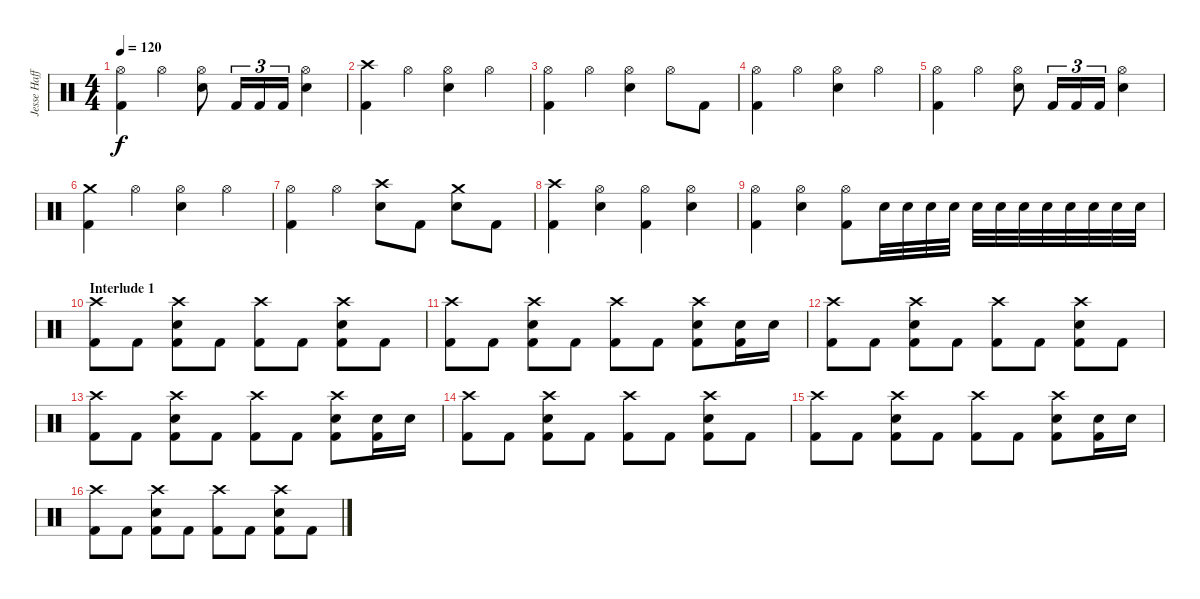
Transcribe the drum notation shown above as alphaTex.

\track ("Jesse Haff" "Jesse Haff") {instrument percussion}
\staff {score}
\articulation defaults
\ts (4 4)
\tempo 120
\clef neutral
\ks c
("Hi-Hat (open)" "Kick (hit) 2").4{dy f} "Hi-Hat (open)".4 ("Hi-Hat (open)" "Electric Snare (hit)").8 "Kick (hit) 2".16{tu (3 2)} "Kick (hit) 2".16{tu (3 2)} "Kick (hit) 2".16{tu (3 2)} ("Hi-Hat (open)" "Electric Snare (hit)").4 |
("Crash high (hit)" "Kick (hit) 2").4 "Hi-Hat (open)".4 ("Hi-Hat (open)" "Electric Snare (hit)").4 "Hi-Hat (open)".4 |
("Hi-Hat (open)" "Kick (hit) 2").4 "Hi-Hat (open)".4 ("Hi-Hat (open)" "Electric Snare (hit)").4 "Hi-Hat (open)".8 "Kick (hit) 2".8 |
("Hi-Hat (open)" "Kick (hit) 2").4 "Hi-Hat (open)".4 ("Hi-Hat (open)" "Electric Snare (hit)").4 "Hi-Hat (open)".4 |
("Hi-Hat (open)" "Kick (hit) 2").4 "Hi-Hat (open)".4 ("Hi-Hat (open)" "Electric Snare (hit)").8 "Kick (hit) 2".16{tu (3 2)} "Kick (hit) 2".16{tu (3 2)} "Kick (hit) 2".16{tu (3 2)} ("Hi-Hat (open)" "Electric Snare (hit)").4 |
("Crash medium (hit)" "Kick (hit) 2").4 "Hi-Hat (open)".4 ("Hi-Hat (open)" "Electric Snare (hit)").4 "Hi-Hat (open)".4 |
("Hi-Hat (open)" "Kick (hit) 2").4 "Hi-Hat (open)".4 ("Crash high (hit)" "Electric Snare (hit)").8 "Kick (hit) 2".8 ("Crash medium (hit)" "Electric Snare (hit)").8 "Kick (hit) 2".8 |
("Crash high (hit)" "Kick (hit) 2").4 ("Hi-Hat (open)" "Electric Snare (hit)").4 ("Hi-Hat (open)" "Kick (hit) 2").4 ("Hi-Hat (open)" "Electric Snare (hit)").4 |
("Hi-Hat (open)" "Kick (hit) 2").4 ("Hi-Hat (open)" "Electric Snare (hit)").4 ("Hi-Hat (open)" "Kick (hit) 2").8 "Electric Snare (hit)".32 "Electric Snare (hit)".32 "Electric Snare (hit)".32 "Electric Snare (hit)".32 "Electric Snare (hit)".32 "Electric Snare (hit)".32 "Electric Snare (hit)".32 "Electric Snare (hit)".32 "Electric Snare (hit)".32 "Electric Snare (hit)".32 "Electric Snare (hit)".32 "Electric Snare (hit)".32 |
\section ("" "Interlude 1")
("Crash high (hit)" "Kick (hit) 2").8 "Kick (hit) 2".8 ("Crash high (hit)" "Electric Snare (hit)" "Kick (hit) 2").8 "Kick (hit) 2".8 ("Crash high (hit)" "Kick (hit) 2").8 "Kick (hit) 2".8 ("Crash high (hit)" "Electric Snare (hit)" "Kick (hit) 2").8 "Kick (hit) 2".8 |
("Crash high (hit)" "Kick (hit) 2").8 "Kick (hit) 2".8 ("Crash high (hit)" "Electric Snare (hit)" "Kick (hit) 2").8 "Kick (hit) 2".8 ("Crash high (hit)" "Kick (hit) 2").8 "Kick (hit) 2".8 ("Crash high (hit)" "Electric Snare (hit)" "Kick (hit) 2").8 ("Electric Snare (hit)" "Kick (hit) 2").16 "Electric Snare (hit)".16 |
("Crash high (hit)" "Kick (hit) 2").8 "Kick (hit) 2".8 ("Crash high (hit)" "Electric Snare (hit)" "Kick (hit) 2").8 "Kick (hit) 2".8 ("Crash high (hit)" "Kick (hit) 2").8 "Kick (hit) 2".8 ("Crash high (hit)" "Electric Snare (hit)" "Kick (hit) 2").8 "Kick (hit) 2".8 |
("Crash high (hit)" "Kick (hit) 2").8 "Kick (hit) 2".8 ("Crash high (hit)" "Electric Snare (hit)" "Kick (hit) 2").8 "Kick (hit) 2".8 ("Crash high (hit)" "Kick (hit) 2").8 "Kick (hit) 2".8 ("Crash high (hit)" "Electric Snare (hit)" "Kick (hit) 2").8 ("Electric Snare (hit)" "Kick (hit) 2").16 "Electric Snare (hit)".16 |
("Crash high (hit)" "Kick (hit) 2").8 "Kick (hit) 2".8 ("Crash high (hit)" "Electric Snare (hit)" "Kick (hit) 2").8 "Kick (hit) 2".8 ("Crash high (hit)" "Kick (hit) 2").8 "Kick (hit) 2".8 ("Crash high (hit)" "Electric Snare (hit)" "Kick (hit) 2").8 "Kick (hit) 2".8 |
("Crash high (hit)" "Kick (hit) 2").8 "Kick (hit) 2".8 ("Crash high (hit)" "Electric Snare (hit)" "Kick (hit) 2").8 "Kick (hit) 2".8 ("Crash high (hit)" "Kick (hit) 2").8 "Kick (hit) 2".8 ("Crash high (hit)" "Electric Snare (hit)" "Kick (hit) 2").8 ("Electric Snare (hit)" "Kick (hit) 2").16 "Electric Snare (hit)".16 |
("Crash high (hit)" "Kick (hit) 2").8 "Kick (hit) 2".8 ("Crash high (hit)" "Electric Snare (hit)" "Kick (hit) 2").8 "Kick (hit) 2".8 ("Crash high (hit)" "Kick (hit) 2").8 "Kick (hit) 2".8 ("Crash high (hit)" "Electric Snare (hit)" "Kick (hit) 2").8 "Kick (hit) 2".8
